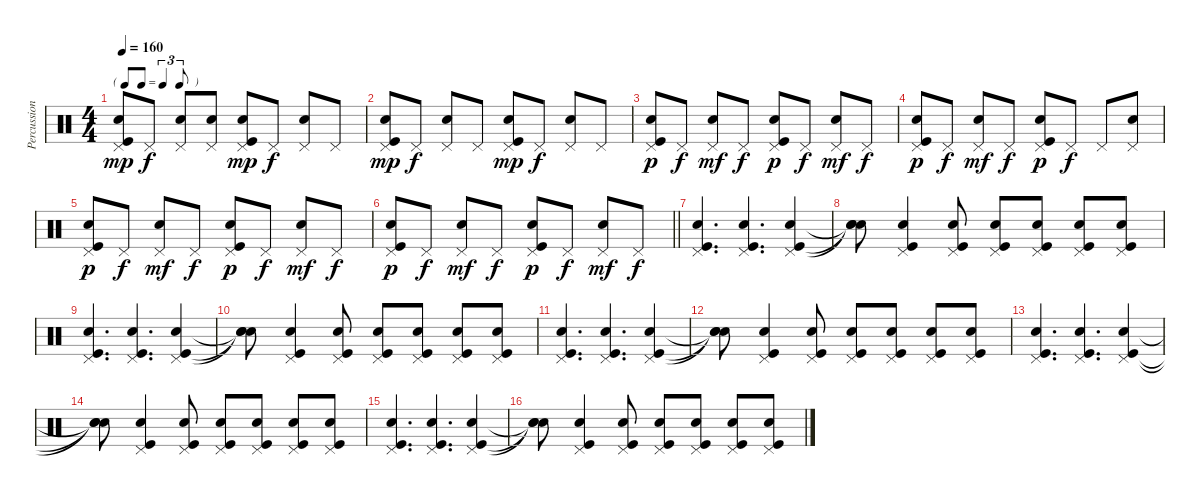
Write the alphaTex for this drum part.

\track ("Percussions" "Percussion") {instrument percussion}
\staff {score}
\articulation defaults
\ts (4 4)
\tf triplet8th
\tempo 160
\clef neutral
\ks c
("Pedal Hi-Hat (hit)" "Snare (hit) 2" "Kick (hit)").8{dy mp} "Pedal Hi-Hat (hit)".8{dy f} ("Pedal Hi-Hat (hit)" "Snare (hit) 2").8 ("Pedal Hi-Hat (hit)" "Snare (hit) 2").8 ("Pedal Hi-Hat (hit)" "Snare (hit) 2" "Kick (hit)").8{dy mp} "Pedal Hi-Hat (hit)".8{dy f} ("Pedal Hi-Hat (hit)" "Snare (hit) 2").8 "Pedal Hi-Hat (hit)".8 |
("Pedal Hi-Hat (hit)" "Snare (hit) 2" "Kick (hit)").8{dy mp} "Pedal Hi-Hat (hit)".8{dy f} ("Pedal Hi-Hat (hit)" "Snare (hit) 2").8 "Pedal Hi-Hat (hit)".8 ("Pedal Hi-Hat (hit)" "Snare (hit) 2" "Kick (hit)").8{dy mp} "Pedal Hi-Hat (hit)".8{dy f} ("Pedal Hi-Hat (hit)" "Snare (hit) 2").8 "Pedal Hi-Hat (hit)".8 |
("Pedal Hi-Hat (hit)" "Snare (hit) 2" "Kick (hit)").8{dy p} "Pedal Hi-Hat (hit)".8{dy f} ("Pedal Hi-Hat (hit)" "Snare (hit) 2").8{dy mf} "Pedal Hi-Hat (hit)".8{dy f} ("Pedal Hi-Hat (hit)" "Snare (hit) 2" "Kick (hit)").8{dy p} "Pedal Hi-Hat (hit)".8{dy f} ("Pedal Hi-Hat (hit)" "Snare (hit) 2").8{dy mf} "Pedal Hi-Hat (hit)".8{dy f} |
("Pedal Hi-Hat (hit)" "Snare (hit) 2" "Kick (hit)").8{dy p} "Pedal Hi-Hat (hit)".8{dy f} ("Pedal Hi-Hat (hit)" "Snare (hit) 2").8{dy mf} "Pedal Hi-Hat (hit)".8{dy f} ("Pedal Hi-Hat (hit)" "Snare (hit) 2" "Kick (hit)").8{dy p} "Pedal Hi-Hat (hit)".8{dy f} "Pedal Hi-Hat (hit)".8 ("Pedal Hi-Hat (hit)" "Snare (hit) 2").8 |
("Pedal Hi-Hat (hit)" "Snare (hit) 2" "Kick (hit)").8{dy p} "Pedal Hi-Hat (hit)".8{dy f} ("Pedal Hi-Hat (hit)" "Snare (hit) 2").8{dy mf} "Pedal Hi-Hat (hit)".8{dy f} ("Pedal Hi-Hat (hit)" "Snare (hit) 2" "Kick (hit)").8{dy p} "Pedal Hi-Hat (hit)".8{dy f} ("Pedal Hi-Hat (hit)" "Snare (hit) 2").8{dy mf} "Pedal Hi-Hat (hit)".8{dy f} |
\barLineRight lightlight
("Pedal Hi-Hat (hit)" "Snare (hit) 2" "Kick (hit)").8{dy p} "Pedal Hi-Hat (hit)".8{dy f} ("Pedal Hi-Hat (hit)" "Snare (hit) 2").8{dy mf} "Pedal Hi-Hat (hit)".8{dy f} ("Pedal Hi-Hat (hit)" "Snare (hit) 2" "Kick (hit)").8{dy p} "Pedal Hi-Hat (hit)".8{dy f} ("Pedal Hi-Hat (hit)" "Snare (hit) 2").8{dy mf} "Pedal Hi-Hat (hit)".8{dy f} |
("Pedal Hi-Hat (hit)" "Snare (hit) 2" "Kick (hit)").4{d} ("Pedal Hi-Hat (hit)" "Snare (hit) 2" "Kick (hit)").4{d} ("Pedal Hi-Hat (hit)" "Snare (hit) 2" "Kick (hit)").4 |
("Snare (hit)"{t} "Snare (hit)"{t} "Snare (hit)"{t}).8 ("Pedal Hi-Hat (hit)" "Snare (hit) 2" "Kick (hit)").4 ("Pedal Hi-Hat (hit)" "Snare (hit) 2" "Kick (hit)").8 ("Pedal Hi-Hat (hit)" "Snare (hit) 2" "Kick (hit)").8 ("Pedal Hi-Hat (hit)" "Snare (hit) 2" "Kick (hit)").8 ("Pedal Hi-Hat (hit)" "Snare (hit) 2" "Kick (hit)").8 ("Pedal Hi-Hat (hit)" "Snare (hit) 2" "Kick (hit)").8 |
("Pedal Hi-Hat (hit)" "Snare (hit) 2" "Kick (hit)").4{d} ("Pedal Hi-Hat (hit)" "Snare (hit) 2" "Kick (hit)").4{d} ("Pedal Hi-Hat (hit)" "Snare (hit) 2" "Kick (hit)").4 |
("Snare (hit)"{t} "Snare (hit)"{t} "Snare (hit)"{t}).8 ("Pedal Hi-Hat (hit)" "Snare (hit) 2" "Kick (hit)").4 ("Pedal Hi-Hat (hit)" "Snare (hit) 2" "Kick (hit)").8 ("Pedal Hi-Hat (hit)" "Snare (hit) 2" "Kick (hit)").8 ("Pedal Hi-Hat (hit)" "Snare (hit) 2" "Kick (hit)").8 ("Pedal Hi-Hat (hit)" "Snare (hit) 2" "Kick (hit)").8 ("Pedal Hi-Hat (hit)" "Snare (hit) 2" "Kick (hit)").8 |
("Pedal Hi-Hat (hit)" "Snare (hit) 2" "Kick (hit)").4{d} ("Pedal Hi-Hat (hit)" "Snare (hit) 2" "Kick (hit)").4{d} ("Pedal Hi-Hat (hit)" "Snare (hit) 2" "Kick (hit)").4 |
("Snare (hit)"{t} "Snare (hit)"{t} "Snare (hit)"{t}).8 ("Pedal Hi-Hat (hit)" "Snare (hit) 2" "Kick (hit)").4 ("Pedal Hi-Hat (hit)" "Snare (hit) 2" "Kick (hit)").8 ("Pedal Hi-Hat (hit)" "Snare (hit) 2" "Kick (hit)").8 ("Pedal Hi-Hat (hit)" "Snare (hit) 2" "Kick (hit)").8 ("Pedal Hi-Hat (hit)" "Snare (hit) 2" "Kick (hit)").8 ("Pedal Hi-Hat (hit)" "Snare (hit) 2" "Kick (hit)").8 |
("Pedal Hi-Hat (hit)" "Snare (hit) 2" "Kick (hit)").4{d} ("Pedal Hi-Hat (hit)" "Snare (hit) 2" "Kick (hit)").4{d} ("Pedal Hi-Hat (hit)" "Snare (hit) 2" "Kick (hit)").4 |
("Snare (hit)"{t} "Snare (hit)"{t} "Snare (hit)"{t}).8 ("Pedal Hi-Hat (hit)" "Snare (hit) 2" "Kick (hit)").4 ("Pedal Hi-Hat (hit)" "Snare (hit) 2" "Kick (hit)").8 ("Pedal Hi-Hat (hit)" "Snare (hit) 2" "Kick (hit)").8 ("Pedal Hi-Hat (hit)" "Snare (hit) 2" "Kick (hit)").8 ("Pedal Hi-Hat (hit)" "Snare (hit) 2" "Kick (hit)").8 ("Pedal Hi-Hat (hit)" "Snare (hit) 2" "Kick (hit)").8 |
("Pedal Hi-Hat (hit)" "Snare (hit) 2" "Kick (hit)").4{d} ("Pedal Hi-Hat (hit)" "Snare (hit) 2" "Kick (hit)").4{d} ("Pedal Hi-Hat (hit)" "Snare (hit) 2" "Kick (hit)").4 |
("Snare (hit)"{t} "Snare (hit)"{t} "Snare (hit)"{t}).8 ("Pedal Hi-Hat (hit)" "Snare (hit) 2" "Kick (hit)").4 ("Pedal Hi-Hat (hit)" "Snare (hit) 2" "Kick (hit)").8 ("Pedal Hi-Hat (hit)" "Snare (hit) 2" "Kick (hit)").8 ("Pedal Hi-Hat (hit)" "Snare (hit) 2" "Kick (hit)").8 ("Pedal Hi-Hat (hit)" "Snare (hit) 2" "Kick (hit)").8 ("Pedal Hi-Hat (hit)" "Snare (hit) 2" "Kick (hit)").8
